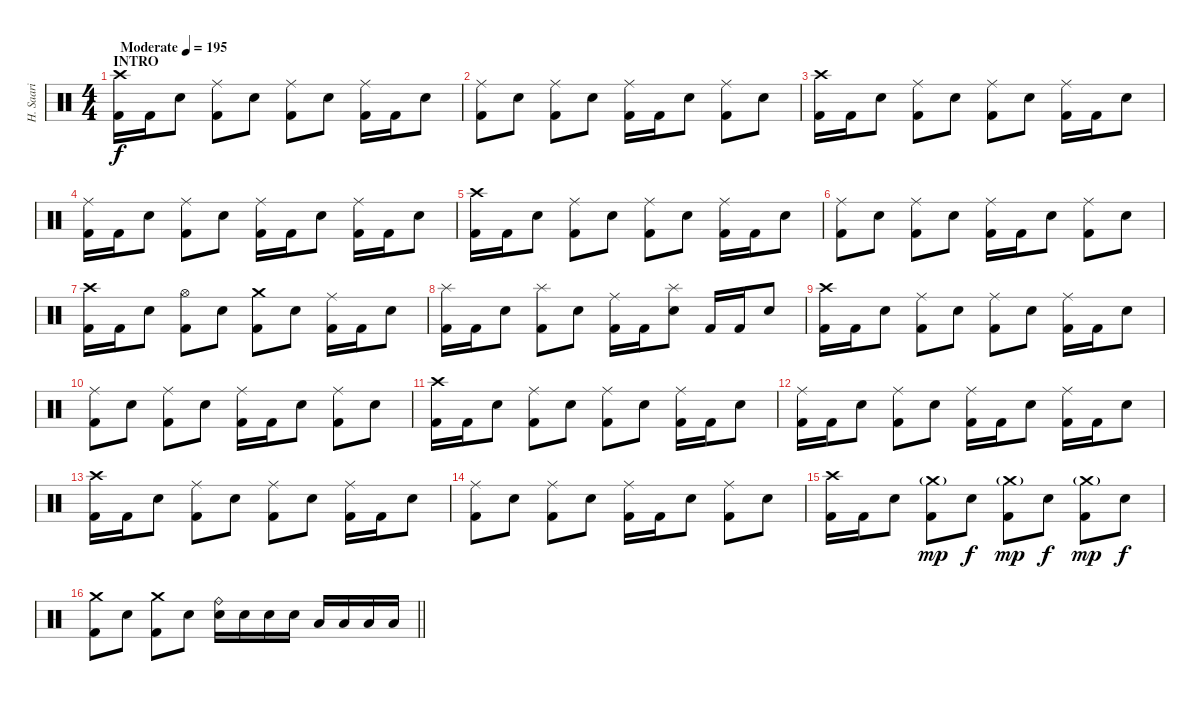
\track ("H. Saari" "H. Saari") {instrument percussion}
\staff {score}
\articulation defaults
\ts (4 4)
\section ("" "INTRO")
\tempo (195 "Moderate")
\clef neutral
\ks c
("Crash high (hit)" "Kick (hit) 2").16{dy f} "Kick (hit) 2".16 "Electric Snare (hit)".8 ("Ride (middle)" "Kick (hit) 2").8 "Electric Snare (hit)".8 ("Ride (middle)" "Kick (hit) 2").8 "Electric Snare (hit)".8 ("Ride (middle)" "Kick (hit) 2").16 "Kick (hit) 2".16 "Electric Snare (hit)".8 |
("Ride (middle)" "Kick (hit) 2").8 "Electric Snare (hit)".8 ("Ride (middle)" "Kick (hit) 2").8 "Electric Snare (hit)".8 ("Ride (middle)" "Kick (hit) 2").16 "Kick (hit) 2".16 "Electric Snare (hit)".8 ("Ride (middle)" "Kick (hit) 2").8 "Electric Snare (hit)".8 |
("Crash high (hit)" "Kick (hit) 2").16 "Kick (hit) 2".16 "Electric Snare (hit)".8 ("Ride (middle)" "Kick (hit) 2").8 "Electric Snare (hit)".8 ("Ride (middle)" "Kick (hit) 2").8 "Electric Snare (hit)".8 ("Ride (middle)" "Kick (hit) 2").16 "Kick (hit) 2".16 "Electric Snare (hit)".8 |
("Ride (middle)" "Kick (hit) 2").16 "Kick (hit) 2".16 "Electric Snare (hit)".8 ("Ride (middle)" "Kick (hit) 2").8 "Electric Snare (hit)".8 ("Ride (middle)" "Kick (hit) 2").16 "Kick (hit) 2".16 "Electric Snare (hit)".8 ("Ride (middle)" "Kick (hit) 2").16 "Kick (hit) 2".16 "Electric Snare (hit)".8 |
("Crash high (hit)" "Kick (hit) 2").16 "Kick (hit) 2".16 "Electric Snare (hit)".8 ("Ride (middle)" "Kick (hit) 2").8 "Electric Snare (hit)".8 ("Ride (middle)" "Kick (hit) 2").8 "Electric Snare (hit)".8 ("Ride (middle)" "Kick (hit) 2").16 "Kick (hit) 2".16 "Electric Snare (hit)".8 |
("Ride (middle)" "Kick (hit) 2").8 "Electric Snare (hit)".8 ("Ride (middle)" "Kick (hit) 2").8 "Electric Snare (hit)".8 ("Ride (middle)" "Kick (hit) 2").16 "Kick (hit) 2".16 "Electric Snare (hit)".8 ("Ride (middle)" "Kick (hit) 2").8 "Electric Snare (hit)".8 |
("Crash high (hit)" "Kick (hit) 2").16 "Kick (hit) 2".16 "Electric Snare (hit)".8 ("Hi-Hat (open)" "Kick (hit) 2").8 "Electric Snare (hit)".8 ("Crash medium (hit)" "Kick (hit) 2").8 "Electric Snare (hit)".8 ("Ride (middle)" "Kick (hit) 2").16 "Kick (hit) 2".16 "Electric Snare (hit)".8 |
("Splash (hit)" "Kick (hit) 2").16 "Kick (hit) 2".16 "Electric Snare (hit)".8 ("Splash (hit)" "Kick (hit) 2").8 "Electric Snare (hit)".8 ("Ride (middle)" "Kick (hit) 2").16 "Kick (hit) 2".16 ("Splash (hit)" "Electric Snare (hit)").8 "Kick (hit) 2".16 "Kick (hit) 2".16 "Electric Snare (hit)".8 |
("Crash high (hit)" "Kick (hit) 2").16 "Kick (hit) 2".16 "Electric Snare (hit)".8 ("Ride (middle)" "Kick (hit) 2").8 "Electric Snare (hit)".8 ("Ride (middle)" "Kick (hit) 2").8 "Electric Snare (hit)".8 ("Ride (middle)" "Kick (hit) 2").16 "Kick (hit) 2".16 "Electric Snare (hit)".8 |
("Ride (middle)" "Kick (hit) 2").8 "Electric Snare (hit)".8 ("Ride (middle)" "Kick (hit) 2").8 "Electric Snare (hit)".8 ("Ride (middle)" "Kick (hit) 2").16 "Kick (hit) 2".16 "Electric Snare (hit)".8 ("Ride (middle)" "Kick (hit) 2").8 "Electric Snare (hit)".8 |
("Crash high (hit)" "Kick (hit) 2").16 "Kick (hit) 2".16 "Electric Snare (hit)".8 ("Ride (middle)" "Kick (hit) 2").8 "Electric Snare (hit)".8 ("Ride (middle)" "Kick (hit) 2").8 "Electric Snare (hit)".8 ("Ride (middle)" "Kick (hit) 2").16 "Kick (hit) 2".16 "Electric Snare (hit)".8 |
("Ride (middle)" "Kick (hit) 2").16 "Kick (hit) 2".16 "Electric Snare (hit)".8 ("Ride (middle)" "Kick (hit) 2").8 "Electric Snare (hit)".8 ("Ride (middle)" "Kick (hit) 2").16 "Kick (hit) 2".16 "Electric Snare (hit)".8 ("Ride (middle)" "Kick (hit) 2").16 "Kick (hit) 2".16 "Electric Snare (hit)".8 |
("Crash high (hit)" "Kick (hit) 2").16 "Kick (hit) 2".16 "Electric Snare (hit)".8 ("Ride (middle)" "Kick (hit) 2").8 "Electric Snare (hit)".8 ("Ride (middle)" "Kick (hit) 2").8 "Electric Snare (hit)".8 ("Ride (middle)" "Kick (hit) 2").16 "Kick (hit) 2".16 "Electric Snare (hit)".8 |
("Ride (middle)" "Kick (hit) 2").8 "Electric Snare (hit)".8 ("Ride (middle)" "Kick (hit) 2").8 "Electric Snare (hit)".8 ("Ride (middle)" "Kick (hit) 2").16 "Kick (hit) 2".16 "Electric Snare (hit)".8 ("Ride (middle)" "Kick (hit) 2").8 "Electric Snare (hit)".8 |
("Crash high (hit)" "Kick (hit) 2").16 "Kick (hit) 2".16 "Electric Snare (hit)".8 ("Crash medium (hit)"{g} "Kick (hit) 2").8{dy mp} "Electric Snare (hit)".8{dy f} ("Crash medium (hit)"{g} "Kick (hit) 2").8{dy mp} "Electric Snare (hit)".8{dy f} ("Crash medium (hit)"{g} "Kick (hit) 2").8{dy mp} "Electric Snare (hit)".8{dy f} |
\barLineRight lightlight
("Crash medium (hit)" "Kick (hit) 2").8 "Electric Snare (hit)".8 ("Crash medium (hit)" "Kick (hit) 2").8 "Electric Snare (hit)".8 ("Ride (bell)" "Electric Snare (hit)").16 "Electric Snare (hit)".16 "Electric Snare (hit)".16 "Electric Snare (hit)".16 "Low Tom (hit)".16 "Low Tom (hit)".16 "Low Tom (hit)".16 "Low Tom (hit)".16
